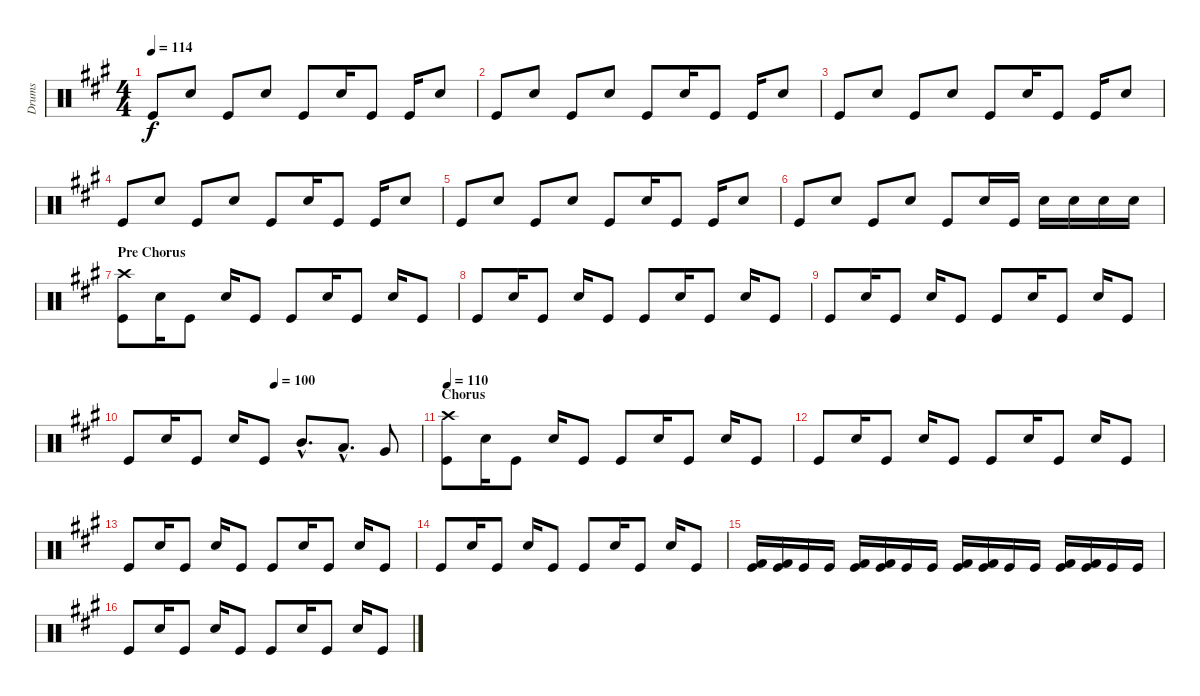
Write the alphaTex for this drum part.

\track ("Drums" "Drums") {instrument percussion}
\staff {score}
\articulation defaults
\ts (4 4)
\tempo 114
\clef neutral
\ks a "Kick (hit)".8{dy f} "Electric Snare (hit)".8 "Kick (hit)".8 "Electric Snare (hit)".8 "Kick (hit)".8 "Electric Snare (hit)".16 "Kick (hit)".8 "Kick (hit)".16 "Electric Snare (hit)".8
|
"Kick (hit)".8 "Electric Snare (hit)".8 "Kick (hit)".8 "Electric Snare (hit)".8 "Kick (hit)".8 "Electric Snare (hit)".16 "Kick (hit)".8 "Kick (hit)".16 "Electric Snare (hit)".8 |
"Kick (hit)".8 "Electric Snare (hit)".8 "Kick (hit)".8 "Electric Snare (hit)".8 "Kick (hit)".8 "Electric Snare (hit)".16 "Kick (hit)".8 "Kick (hit)".16 "Electric Snare (hit)".8 |
"Kick (hit)".8 "Electric Snare (hit)".8 "Kick (hit)".8 "Electric Snare (hit)".8 "Kick (hit)".8 "Electric Snare (hit)".16 "Kick (hit)".8 "Kick (hit)".16 "Electric Snare (hit)".8 |
"Kick (hit)".8 "Electric Snare (hit)".8 "Kick (hit)".8 "Electric Snare (hit)".8 "Kick (hit)".8 "Electric Snare (hit)".16 "Kick (hit)".8 "Kick (hit)".16 "Electric Snare (hit)".8 |
"Kick (hit)".8 "Electric Snare (hit)".8 "Kick (hit)".8 "Electric Snare (hit)".8 "Kick (hit)".8 "Electric Snare (hit)".16 "Kick (hit)".16 "Electric Snare (hit)".16 "Electric Snare (hit)".16 "Electric Snare (hit)".16 "Electric Snare (hit)".16 |
\section ("" "Pre Chorus")
("Crash high (hit)" "Kick (hit)").8 "Electric Snare (hit)".16 "Kick (hit)".8 "Electric Snare (hit)".16 "Kick (hit)".8 "Kick (hit)".8 "Electric Snare (hit)".16 "Kick (hit)".8 "Electric Snare (hit)".16 "Kick (hit)".8 |
"Kick (hit)".8 "Electric Snare (hit)".16 "Kick (hit)".8 "Electric Snare (hit)".16 "Kick (hit)".8 "Kick (hit)".8 "Electric Snare (hit)".16 "Kick (hit)".8 "Electric Snare (hit)".16 "Kick (hit)".8 |
"Kick (hit)".8 "Electric Snare (hit)".16 "Kick (hit)".8 "Electric Snare (hit)".16 "Kick (hit)".8 "Kick (hit)".8 "Electric Snare (hit)".16 "Kick (hit)".8 "Electric Snare (hit)".16 "Kick (hit)".8 |
\tempo (100 0.5)
"Kick (hit)".8 "Electric Snare (hit)".16 "Kick (hit)".8 "Electric Snare (hit)".16 "Kick (hit)".8 "Mid Tom (hit)"{hac}.8{d} "Low Tom (hit)"{hac}.8{d} "Very Low Tom (hit)".8 |
\section ("" "Chorus")
\tempo 110
("Crash high (hit)" "Kick (hit)").8 "Electric Snare (hit)".16 "Kick (hit)".8 "Electric Snare (hit)".16 "Kick (hit)".8 "Kick (hit)".8 "Electric Snare (hit)".16 "Kick (hit)".8 "Electric Snare (hit)".16 "Kick (hit)".8 |
"Kick (hit)".8 "Electric Snare (hit)".16 "Kick (hit)".8 "Electric Snare (hit)".16 "Kick (hit)".8 "Kick (hit)".8 "Electric Snare (hit)".16 "Kick (hit)".8 "Electric Snare (hit)".16 "Kick (hit)".8 |
"Kick (hit)".8 "Electric Snare (hit)".16 "Kick (hit)".8 "Electric Snare (hit)".16 "Kick (hit)".8 "Kick (hit)".8 "Electric Snare (hit)".16 "Kick (hit)".8 "Electric Snare (hit)".16 "Kick (hit)".8 |
"Kick (hit)".8 "Electric Snare (hit)".16 "Kick (hit)".8 "Electric Snare (hit)".16 "Kick (hit)".8 "Kick (hit)".8 "Electric Snare (hit)".16 "Kick (hit)".8 "Electric Snare (hit)".16 "Kick (hit)".8 |
("Kick (hit) 2" "Kick (hit)").16 ("Kick (hit) 2" "Kick (hit)").16 "Kick (hit)".16 "Kick (hit)".16 ("Kick (hit) 2" "Kick (hit)").16 ("Kick (hit) 2" "Kick (hit)").16 "Kick (hit)".16 "Kick (hit)".16 ("Kick (hit) 2" "Kick (hit)").16 ("Kick (hit) 2" "Kick (hit)").16 "Kick (hit)".16 "Kick (hit)".16 ("Kick (hit) 2" "Kick (hit)").16 ("Kick (hit) 2" "Kick (hit)").16 "Kick (hit)".16 "Kick (hit)".16 |
"Kick (hit)".8 "Electric Snare (hit)".16 "Kick (hit)".8 "Electric Snare (hit)".16 "Kick (hit)".8 "Kick (hit)".8 "Electric Snare (hit)".16 "Kick (hit)".8 "Electric Snare (hit)".16 "Kick (hit)".8
